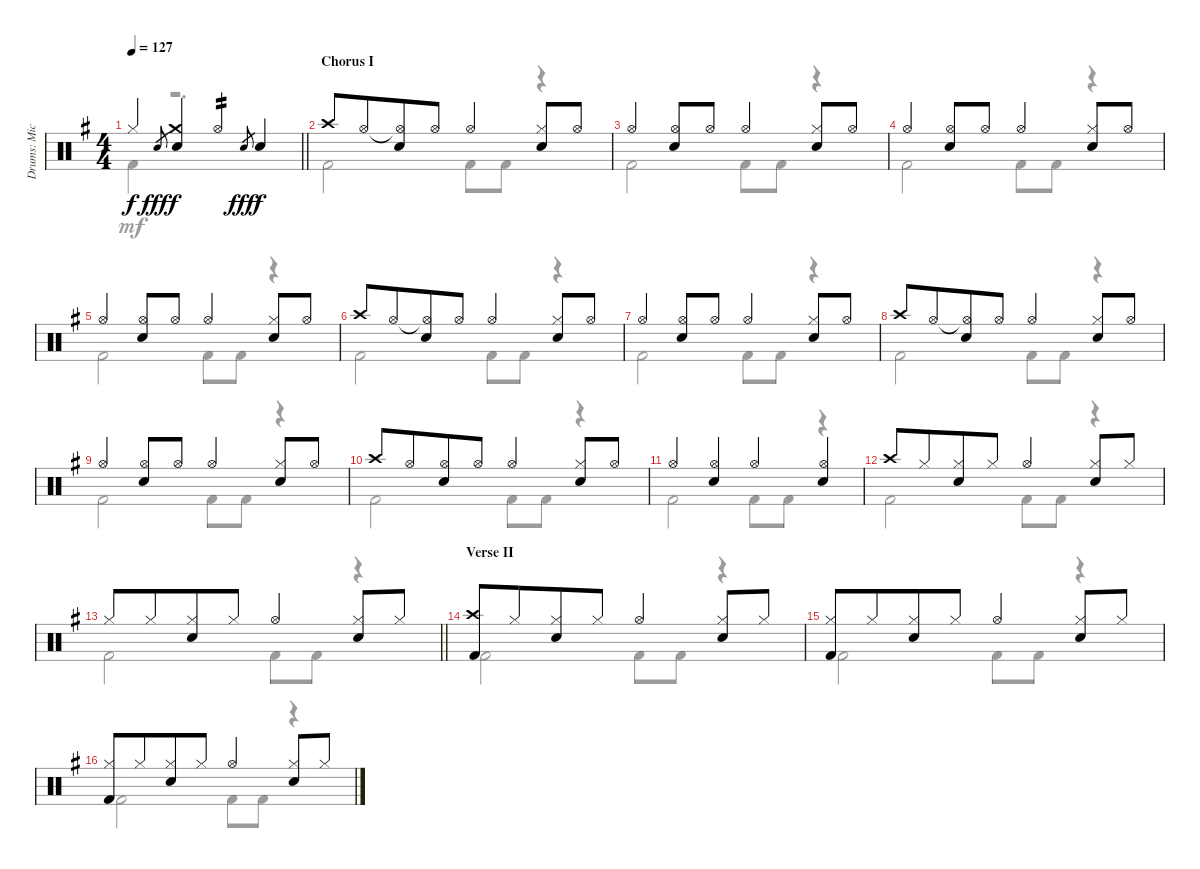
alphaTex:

\track ("Drums: Mick" "Drums: Mic") {instrument percussion}
\staff {score}
\articulation defaults
\voice
\ts (4 4)
\tempo 127
\clef neutral
\barLineRight lightlight
\ks g "Hi-Hat (closed)".4{dy f} "Electric Snare (hit)".8{gr dy fff beam merge}
("Crash medium (hit)" "Snare (hit) 2").4{dy f} "Hi-Hat (open)".4{tp 2} "Electric Snare (hit)".8{gr dy fff beam merge} "Snare (hit) 2".4{dy f} |
\section ("" "Chorus I")
"Crash high (hit)".8 "Hi-Hat (open)".8{beam merge} ("Hi-Hat (open)"{t} "Snare (hit) 2").8 "Hi-Hat (open)".8 "Hi-Hat (open)".4{beam merge} ("Hi-Hat (closed)" "Snare (hit) 2").8 "Hi-Hat (open)".8 |
"Hi-Hat (open)".4{beam merge} ("Hi-Hat (open)" "Snare (hit) 2").8 "Hi-Hat (open)".8 "Hi-Hat (open)".4{beam merge} ("Hi-Hat (closed)" "Snare (hit) 2").8 "Hi-Hat (open)".8 |
"Hi-Hat (open)".4{beam merge} ("Hi-Hat (open)" "Snare (hit) 2").8 "Hi-Hat (open)".8 "Hi-Hat (open)".4{beam merge} ("Hi-Hat (closed)" "Snare (hit) 2").8 "Hi-Hat (open)".8 |
"Hi-Hat (open)".4{beam merge} ("Hi-Hat (open)" "Snare (hit) 2").8 "Hi-Hat (open)".8 "Hi-Hat (open)".4{beam merge} ("Hi-Hat (closed)" "Snare (hit) 2").8 "Hi-Hat (open)".8 |
"Crash high (hit)".8 "Hi-Hat (open)".8{beam merge} ("Hi-Hat (open)"{t} "Snare (hit) 2").8 "Hi-Hat (open)".8 "Hi-Hat (open)".4{beam merge} ("Hi-Hat (closed)" "Snare (hit) 2").8 "Hi-Hat (open)".8 |
"Hi-Hat (open)".4{beam merge} ("Hi-Hat (open)" "Snare (hit) 2").8 "Hi-Hat (open)".8 "Hi-Hat (open)".4{beam merge} ("Hi-Hat (closed)" "Snare (hit) 2").8 "Hi-Hat (open)".8 |
"Crash high (hit)".8 "Hi-Hat (open)".8{beam merge} ("Hi-Hat (open)"{t} "Snare (hit) 2").8 "Hi-Hat (open)".8 "Hi-Hat (open)".4{beam merge} ("Hi-Hat (closed)" "Snare (hit) 2").8 "Hi-Hat (open)".8 |
"Hi-Hat (open)".4{beam merge} ("Hi-Hat (open)" "Snare (hit) 2").8 "Hi-Hat (open)".8 "Hi-Hat (open)".4{beam merge} ("Hi-Hat (closed)" "Snare (hit) 2").8 "Hi-Hat (open)".8 |
"Crash high (hit)".8 "Hi-Hat (open)".8{beam merge} ("Hi-Hat (open)" "Snare (hit) 2").8 "Hi-Hat (open)".8 "Hi-Hat (open)".4{beam merge} ("Hi-Hat (closed)" "Snare (hit) 2").8 "Hi-Hat (open)".8 |
"Hi-Hat (open)".4{beam merge} ("Hi-Hat (open)" "Snare (hit) 2").4 "Hi-Hat (open)".4{beam merge} ("Hi-Hat (open)" "Snare (hit) 2").4 |
"Crash high (hit)".8 "Hi-Hat (closed)".8{beam merge} ("Hi-Hat (closed)" "Snare (hit) 2").8 "Hi-Hat (closed)".8 "Hi-Hat (open)".4{beam merge} ("Hi-Hat (closed)" "Snare (hit) 2").8 "Hi-Hat (closed)".8 |
\barLineRight lightlight "Hi-Hat (closed)".8 "Hi-Hat (closed)".8{beam merge}
("Hi-Hat (closed)" "Snare (hit) 2").8 "Hi-Hat (closed)".8 "Hi-Hat (open)".4{beam merge} ("Hi-Hat (closed)" "Snare (hit) 2").8 "Hi-Hat (closed)".8 |
\section ("" "Verse II")
("Crash high (hit)" "Kick (hit) 2").8 "Hi-Hat (closed)".8{beam merge} ("Hi-Hat (closed)" "Snare (hit) 2").8 "Hi-Hat (closed)".8 "Hi-Hat (open)".4{beam merge} ("Hi-Hat (closed)" "Snare (hit) 2").8 "Hi-Hat (closed)".8 |
("Hi-Hat (closed)" "Kick (hit) 2").8 "Hi-Hat (closed)".8{beam merge} ("Hi-Hat (closed)" "Snare (hit) 2").8 "Hi-Hat (closed)".8 "Hi-Hat (open)".4{beam merge} ("Hi-Hat (closed)" "Snare (hit) 2").8 "Hi-Hat (closed)".8 |
("Hi-Hat (closed)" "Kick (hit) 2").8 "Hi-Hat (closed)".8{beam merge} ("Hi-Hat (closed)" "Snare (hit) 2").8 "Hi-Hat (closed)".8 "Hi-Hat (open)".4{beam merge} ("Hi-Hat (closed)" "Snare (hit) 2").8 "Hi-Hat (closed)".8
\voice
\clef neutral
\ottava regular
\simile none
\barLineRight lightlight
\ks g "Kick (hit) 2".4{dy mf}
r.2{d} |
"Kick (hit) 2".2 "Kick (hit) 2".8 "Kick (hit) 2".8 r.4 |
"Kick (hit) 2".2 "Kick (hit) 2".8 "Kick (hit) 2".8 r.4 |
"Kick (hit) 2".2 "Kick (hit) 2".8 "Kick (hit) 2".8 r.4 |
"Kick (hit) 2".2 "Kick (hit) 2".8 "Kick (hit) 2".8 r.4 |
"Kick (hit) 2".2 "Kick (hit) 2".8 "Kick (hit) 2".8 r.4 |
"Kick (hit) 2".2 "Kick (hit) 2".8 "Kick (hit) 2".8 r.4 |
"Kick (hit) 2".2 "Kick (hit) 2".8 "Kick (hit) 2".8 r.4 |
"Kick (hit) 2".2 "Kick (hit) 2".8 "Kick (hit) 2".8 r.4 |
"Kick (hit) 2".2 "Kick (hit) 2".8 "Kick (hit) 2".8 r.4 |
"Kick (hit) 2".2 "Kick (hit) 2".8 "Kick (hit) 2".8 r.4 |
"Kick (hit) 2".2 "Kick (hit) 2".8 "Kick (hit) 2".8 r.4 |
\barLineRight lightlight "Kick (hit) 2".2 "Kick (hit) 2".8 "Kick (hit) 2".8
r.4 |
"Kick (hit) 2".2 "Kick (hit) 2".8 "Kick (hit) 2".8 r.4 |
"Kick (hit) 2".2 "Kick (hit) 2".8 "Kick (hit) 2".8 r.4 |
"Kick (hit) 2".2 "Kick (hit) 2".8 "Kick (hit) 2".8 r.4
